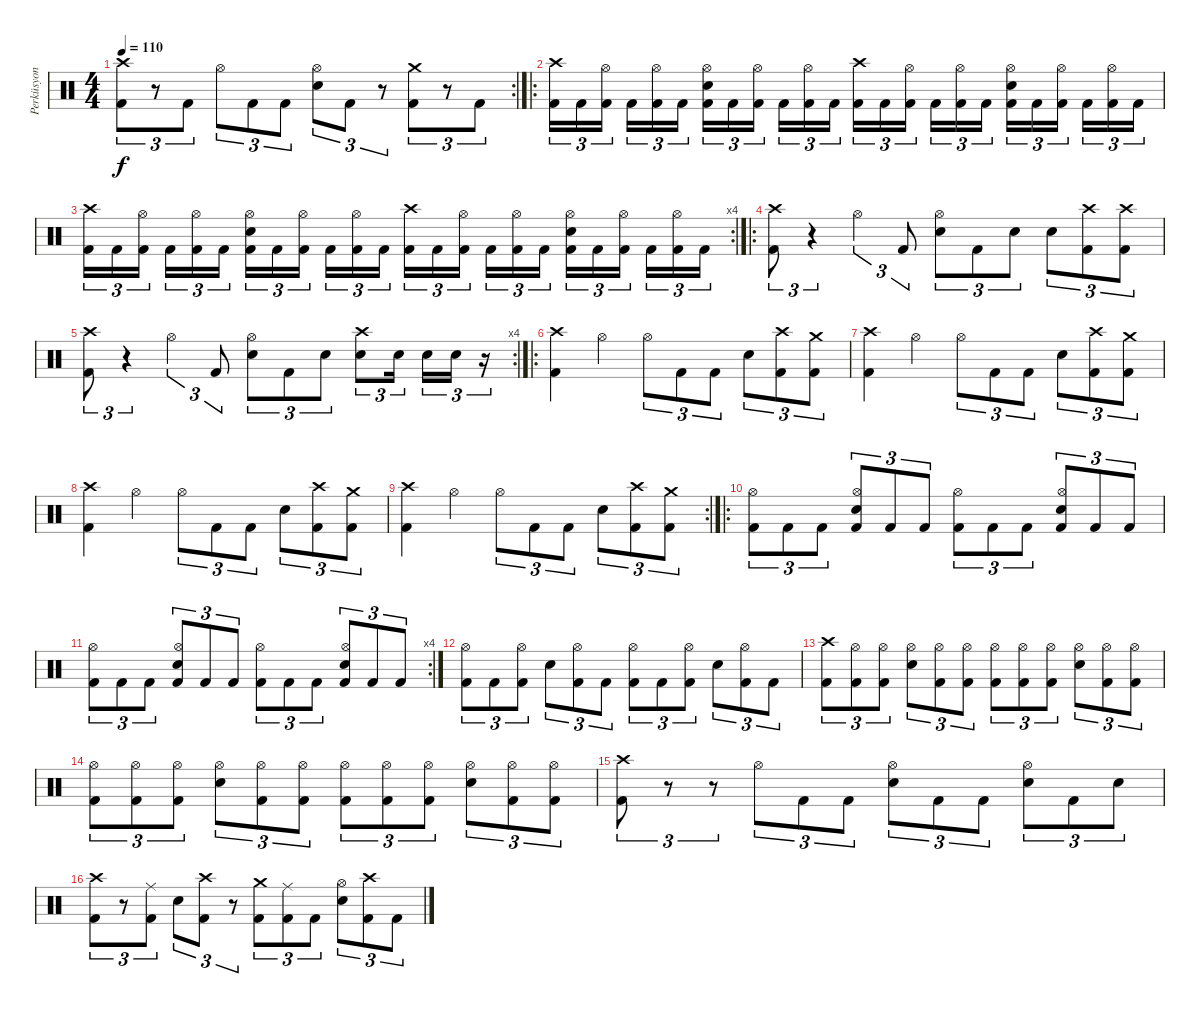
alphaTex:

\track ("Perküsyon" "Perküsyon") {instrument percussion}
\staff {score}
\articulation defaults
\rc 2
\ts (4 4)
\tempo 110
\clef neutral
\ks c
("Kick (hit) 2" "Crash high (hit)").8{tu (3 2) dy f} r.8{tu (3 2)} "Kick (hit) 2".8{tu (3 2)} "Hi-Hat (open)".8{tu (3 2)} "Kick (hit) 2".8{tu (3 2)} "Kick (hit) 2".8{tu (3 2)} ("Electric Snare (hit)" "Hi-Hat (open)").8{tu (3 2)} "Kick (hit) 2".8{tu (3 2)} r.8{tu (3 2)} ("Kick (hit) 2" "Crash medium (hit)").8{tu (3 2)} r.8{tu (3 2)} "Kick (hit) 2".8{tu (3 2)} |
\ro
("Kick (hit) 2" "Crash high (hit)").16{tu (3 2)} "Kick (hit) 2".16{tu (3 2)} ("Kick (hit) 2" "Hi-Hat (open)").16{tu (3 2) beam splitsecondary} "Kick (hit) 2".16{tu (3 2)} ("Kick (hit) 2" "Hi-Hat (open)").16{tu (3 2)} "Kick (hit) 2".16{tu (3 2)} ("Kick (hit) 2" "Hi-Hat (open)" "Electric Snare (hit)").16{tu (3 2)} "Kick (hit) 2".16{tu (3 2)} ("Kick (hit) 2" "Hi-Hat (open)").16{tu (3 2) beam splitsecondary} "Kick (hit) 2".16{tu (3 2)} ("Kick (hit) 2" "Hi-Hat (open)").16{tu (3 2)} "Kick (hit) 2".16{tu (3 2)} ("Kick (hit) 2" "Crash high (hit)").16{tu (3 2)} "Kick (hit) 2".16{tu (3 2)} ("Kick (hit) 2" "Hi-Hat (open)").16{tu (3 2) beam splitsecondary} "Kick (hit) 2".16{tu (3 2)} ("Kick (hit) 2" "Hi-Hat (open)").16{tu (3 2)} "Kick (hit) 2".16{tu (3 2)} ("Kick (hit) 2" "Hi-Hat (open)" "Electric Snare (hit)").16{tu (3 2)} "Kick (hit) 2".16{tu (3 2)} ("Kick (hit) 2" "Hi-Hat (open)").16{tu (3 2) beam splitsecondary} "Kick (hit) 2".16{tu (3 2)} ("Kick (hit) 2" "Hi-Hat (open)").16{tu (3 2)} "Kick (hit) 2".16{tu (3 2)} |
\rc 4
("Kick (hit) 2" "Crash high (hit)").16{tu (3 2)} "Kick (hit) 2".16{tu (3 2)} ("Kick (hit) 2" "Hi-Hat (open)").16{tu (3 2) beam splitsecondary} "Kick (hit) 2".16{tu (3 2)} ("Kick (hit) 2" "Hi-Hat (open)").16{tu (3 2)} "Kick (hit) 2".16{tu (3 2)} ("Kick (hit) 2" "Hi-Hat (open)" "Electric Snare (hit)").16{tu (3 2)} "Kick (hit) 2".16{tu (3 2)} ("Kick (hit) 2" "Hi-Hat (open)").16{tu (3 2) beam splitsecondary} "Kick (hit) 2".16{tu (3 2)} ("Kick (hit) 2" "Hi-Hat (open)").16{tu (3 2)} "Kick (hit) 2".16{tu (3 2)} ("Kick (hit) 2" "Crash high (hit)").16{tu (3 2)} "Kick (hit) 2".16{tu (3 2)} ("Kick (hit) 2" "Hi-Hat (open)").16{tu (3 2) beam splitsecondary} "Kick (hit) 2".16{tu (3 2)} ("Kick (hit) 2" "Hi-Hat (open)").16{tu (3 2)} "Kick (hit) 2".16{tu (3 2)} ("Kick (hit) 2" "Hi-Hat (open)" "Electric Snare (hit)").16{tu (3 2)} "Kick (hit) 2".16{tu (3 2)} ("Kick (hit) 2" "Hi-Hat (open)").16{tu (3 2) beam splitsecondary} "Kick (hit) 2".16{tu (3 2)} ("Kick (hit) 2" "Hi-Hat (open)").16{tu (3 2)} "Kick (hit) 2".16{tu (3 2)} |
\ro
("Kick (hit) 2" "Crash high (hit)").8{tu (3 2)} r.4{tu (3 2)} "Hi-Hat (open)".4{tu (3 2)} "Kick (hit) 2".8{tu (3 2)} ("Hi-Hat (open)" "Electric Snare (hit)").8{tu (3 2)} "Kick (hit) 2".8{tu (3 2)} "Electric Snare (hit)".8{tu (3 2)} "Electric Snare (hit)".8{tu (3 2)} ("Kick (hit) 2" "Crash high (hit)").8{tu (3 2)} ("Kick (hit) 2" "Crash high (hit)").8{tu (3 2)} |
\rc 4
("Kick (hit) 2" "Crash high (hit)").8{tu (3 2)} r.4{tu (3 2)} "Hi-Hat (open)".4{tu (3 2)} "Kick (hit) 2".8{tu (3 2)} ("Hi-Hat (open)" "Electric Snare (hit)").8{tu (3 2)} "Kick (hit) 2".8{tu (3 2)} "Electric Snare (hit)".8{tu (3 2)} ("Electric Snare (hit)" "Crash high (hit)").8{tu (3 2)} "Electric Snare (hit)".16{tu (3 2) beam splitsecondary} "Electric Snare (hit)".16{tu (3 2)} "Electric Snare (hit)".16{tu (3 2)} r.16{tu (3 2)} |
\ro
("Kick (hit) 2" "Crash high (hit)").4 "Hi-Hat (open)".4 "Hi-Hat (open)".8{tu (3 2)} "Kick (hit) 2".8{tu (3 2)} "Kick (hit) 2".8{tu (3 2)} "Electric Snare (hit)".8{tu (3 2)} ("Crash high (hit)" "Kick (hit) 2").8{tu (3 2)} ("Crash medium (hit)" "Kick (hit) 2").8{tu (3 2)} |
("Kick (hit) 2" "Crash high (hit)").4 "Hi-Hat (open)".4 "Hi-Hat (open)".8{tu (3 2)} "Kick (hit) 2".8{tu (3 2)} "Kick (hit) 2".8{tu (3 2)} "Electric Snare (hit)".8{tu (3 2)} ("Crash high (hit)" "Kick (hit) 2").8{tu (3 2)} ("Crash medium (hit)" "Kick (hit) 2").8{tu (3 2)} |
("Kick (hit) 2" "Crash high (hit)").4 "Hi-Hat (open)".4 "Hi-Hat (open)".8{tu (3 2)} "Kick (hit) 2".8{tu (3 2)} "Kick (hit) 2".8{tu (3 2)} "Electric Snare (hit)".8{tu (3 2)} ("Crash high (hit)" "Kick (hit) 2").8{tu (3 2)} ("Crash medium (hit)" "Kick (hit) 2").8{tu (3 2)} |
\rc 2
("Kick (hit) 2" "Crash high (hit)").4 "Hi-Hat (open)".4 "Hi-Hat (open)".8{tu (3 2)} "Kick (hit) 2".8{tu (3 2)} "Kick (hit) 2".8{tu (3 2)} "Electric Snare (hit)".8{tu (3 2)} ("Crash high (hit)" "Kick (hit) 2").8{tu (3 2)} ("Crash medium (hit)" "Kick (hit) 2").8{tu (3 2)} |
\ro
("Kick (hit) 2" "Hi-Hat (open)").8{tu (3 2)} "Kick (hit) 2".8{tu (3 2)} "Kick (hit) 2".8{tu (3 2)} ("Kick (hit) 2" "Hi-Hat (open)" "Electric Snare (hit)").8{tu (3 2)} "Kick (hit) 2".8{tu (3 2)} "Kick (hit) 2".8{tu (3 2)} ("Kick (hit) 2" "Hi-Hat (open)").8{tu (3 2)} "Kick (hit) 2".8{tu (3 2)} "Kick (hit) 2".8{tu (3 2)} ("Kick (hit) 2" "Hi-Hat (open)" "Electric Snare (hit)").8{tu (3 2)} "Kick (hit) 2".8{tu (3 2)} "Kick (hit) 2".8{tu (3 2)} |
\rc 4
("Kick (hit) 2" "Hi-Hat (open)").8{tu (3 2)} "Kick (hit) 2".8{tu (3 2)} "Kick (hit) 2".8{tu (3 2)} ("Kick (hit) 2" "Hi-Hat (open)" "Electric Snare (hit)").8{tu (3 2)} "Kick (hit) 2".8{tu (3 2)} "Kick (hit) 2".8{tu (3 2)} ("Kick (hit) 2" "Hi-Hat (open)").8{tu (3 2)} "Kick (hit) 2".8{tu (3 2)} "Kick (hit) 2".8{tu (3 2)} ("Kick (hit) 2" "Hi-Hat (open)" "Electric Snare (hit)").8{tu (3 2)} "Kick (hit) 2".8{tu (3 2)} "Kick (hit) 2".8{tu (3 2)} |
("Hi-Hat (open)" "Kick (hit) 2").8{tu (3 2)} "Kick (hit) 2".8{tu (3 2)} ("Hi-Hat (open)" "Kick (hit) 2").8{tu (3 2)} "Electric Snare (hit)".8{tu (3 2)} ("Hi-Hat (open)" "Kick (hit) 2").8{tu (3 2)} "Kick (hit) 2".8{tu (3 2)} ("Hi-Hat (open)" "Kick (hit) 2").8{tu (3 2)} "Kick (hit) 2".8{tu (3 2)} ("Hi-Hat (open)" "Kick (hit) 2").8{tu (3 2)} "Electric Snare (hit)".8{tu (3 2)} ("Hi-Hat (open)" "Kick (hit) 2").8{tu (3 2)} "Kick (hit) 2".8{tu (3 2)} |
("Crash high (hit)" "Kick (hit) 2").8{tu (3 2)} ("Hi-Hat (open)" "Kick (hit) 2").8{tu (3 2)} ("Hi-Hat (open)" "Kick (hit) 2").8{tu (3 2)} ("Electric Snare (hit)" "Hi-Hat (open)").8{tu (3 2)} ("Hi-Hat (open)" "Kick (hit) 2").8{tu (3 2)} ("Hi-Hat (open)" "Kick (hit) 2").8{tu (3 2)} ("Hi-Hat (open)" "Kick (hit) 2").8{tu (3 2)} ("Hi-Hat (open)" "Kick (hit) 2").8{tu (3 2)} ("Hi-Hat (open)" "Kick (hit) 2").8{tu (3 2)} ("Electric Snare (hit)" "Hi-Hat (open)").8{tu (3 2)} ("Hi-Hat (open)" "Kick (hit) 2").8{tu (3 2)} ("Hi-Hat (open)" "Kick (hit) 2").8{tu (3 2)} |
("Hi-Hat (open)" "Kick (hit) 2").8{tu (3 2)} ("Hi-Hat (open)" "Kick (hit) 2").8{tu (3 2)} ("Hi-Hat (open)" "Kick (hit) 2").8{tu (3 2)} ("Electric Snare (hit)" "Hi-Hat (open)").8{tu (3 2)} ("Hi-Hat (open)" "Kick (hit) 2").8{tu (3 2)} ("Hi-Hat (open)" "Kick (hit) 2").8{tu (3 2)} ("Hi-Hat (open)" "Kick (hit) 2").8{tu (3 2)} ("Hi-Hat (open)" "Kick (hit) 2").8{tu (3 2)} ("Hi-Hat (open)" "Kick (hit) 2").8{tu (3 2)} ("Electric Snare (hit)" "Hi-Hat (open)").8{tu (3 2)} ("Hi-Hat (open)" "Kick (hit) 2").8{tu (3 2)} ("Hi-Hat (open)" "Kick (hit) 2").8{tu (3 2)} |
("Crash high (hit)" "Kick (hit) 2").8{tu (3 2)} r.8{tu (3 2)} r.8{tu (3 2)} "Hi-Hat (open)".8{tu (3 2)} "Kick (hit) 2".8{tu (3 2)} "Kick (hit) 2".8{tu (3 2)} ("Hi-Hat (open)" "Electric Snare (hit)").8{tu (3 2)} "Kick (hit) 2".8{tu (3 2)} "Kick (hit) 2".8{tu (3 2)} ("Electric Snare (hit)" "Hi-Hat (open)").8{tu (3 2)} "Kick (hit) 2".8{tu (3 2)} "Electric Snare (hit)".8{tu (3 2)} |
("Crash high (hit)" "Kick (hit) 2").8{tu (3 2)} r.8{tu (3 2)} ("Ride (middle)" "Kick (hit) 2").8{tu (3 2)} "Electric Snare (hit)".8{tu (3 2)} ("Crash high (hit)" "Kick (hit) 2").8{tu (3 2)} r.8{tu (3 2)} ("Crash medium (hit)" "Kick (hit) 2").8{tu (3 2)} ("Ride (middle)" "Kick (hit) 2").8{tu (3 2)} "Kick (hit) 2".8{tu (3 2)} ("Electric Snare (hit)" "Hi-Hat (open)").8{tu (3 2)} ("Crash high (hit)" "Kick (hit) 2").8{tu (3 2)} "Kick (hit) 2".8{tu (3 2)}
